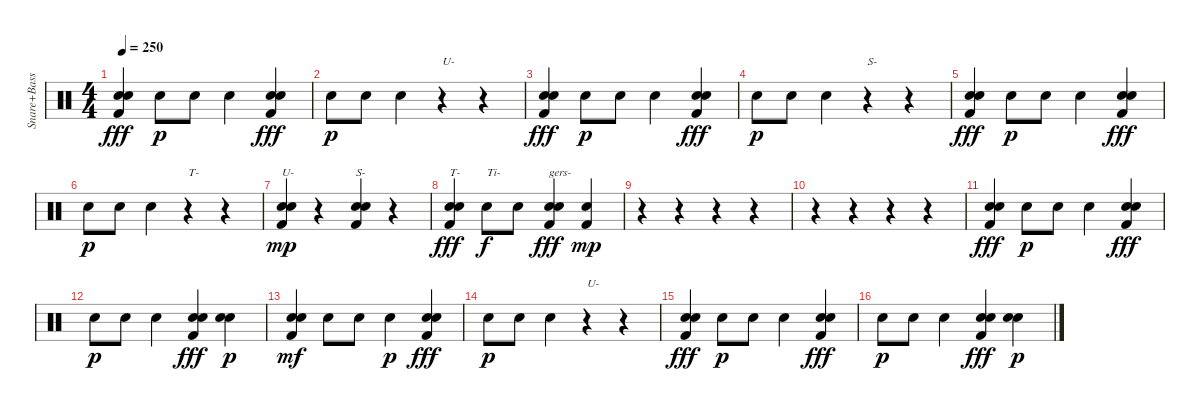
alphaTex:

\track ("Snare+Bass" "Snare+Bass") {instrument percussion}
\staff {score}
\articulation defaults
\ts (4 4)
\tempo 250
\clef neutral
\ks c
("Snare (hit) 2" "Snare (hit) 2" "Kick (hit) 2").4{dy fff} "Snare (hit) 2".8{dy p} "Snare (hit) 2".8 "Snare (hit) 2".4 ("Snare (hit) 2" "Snare (hit) 2" "Kick (hit) 2").4{dy fff} |
"Snare (hit) 2".8{dy p} "Snare (hit) 2".8 "Snare (hit) 2".4 r.4{txt "U-"} r.4 |
("Snare (hit) 2" "Snare (hit) 2" "Kick (hit) 2").4{dy fff} "Snare (hit) 2".8{dy p} "Snare (hit) 2".8 "Snare (hit) 2".4 ("Snare (hit) 2" "Snare (hit) 2" "Kick (hit) 2").4{dy fff} |
"Snare (hit) 2".8{dy p} "Snare (hit) 2".8 "Snare (hit) 2".4 r.4{txt "S-"} r.4 |
("Snare (hit) 2" "Snare (hit) 2" "Kick (hit) 2").4{dy fff} "Snare (hit) 2".8{dy p} "Snare (hit) 2".8 "Snare (hit) 2".4 ("Snare (hit) 2" "Snare (hit) 2" "Kick (hit) 2").4{dy fff} |
"Snare (hit) 2".8{dy p} "Snare (hit) 2".8 "Snare (hit) 2".4 r.4{txt "T-"} r.4 |
("Snare (hit) 2" "Snare (hit) 2" "Kick (hit) 2").4{txt "U-" dy mp} r.4 ("Snare (hit) 2" "Snare (hit) 2" "Kick (hit) 2").4{txt "S-"} r.4 |
("Snare (hit) 2" "Snare (hit) 2" "Kick (hit) 2").4{txt "T-" dy fff} "Snare (hit) 2".8{txt "Ti-" dy f} "Snare (hit) 2".8 ("Snare (hit) 2" "Snare (hit) 2" "Kick (hit) 2").4{txt "gers-" dy fff} ("Snare (hit) 2" "Kick (hit) 2").4{dy mp} |
r.4 r.4 r.4 r.4 |
r.4 r.4 r.4 r.4 |
("Snare (hit) 2" "Snare (hit) 2" "Kick (hit) 2").4{dy fff} "Snare (hit) 2".8{dy p} "Snare (hit) 2".8 "Snare (hit) 2".4 ("Snare (hit) 2" "Snare (hit) 2" "Kick (hit) 2").4{dy fff} |
"Snare (hit) 2".8{dy p} "Snare (hit) 2".8 "Snare (hit) 2".4 ("Snare (hit) 2" "Snare (hit) 2" "Kick (hit) 2").4{dy fff} ("Snare (hit) 2" "Snare (hit) 2").4{dy p} |
("Snare (hit) 2" "Snare (hit) 2" "Kick (hit) 2").4{dy mf} "Snare (hit) 2".8 "Snare (hit) 2".8 "Snare (hit) 2".4{dy p} ("Snare (hit) 2" "Snare (hit) 2" "Kick (hit) 2").4{dy fff} |
"Snare (hit) 2".8{dy p} "Snare (hit) 2".8 "Snare (hit) 2".4 r.4{txt "U-"} r.4 |
("Snare (hit) 2" "Snare (hit) 2" "Kick (hit) 2").4{dy fff} "Snare (hit) 2".8{dy p} "Snare (hit) 2".8 "Snare (hit) 2".4 ("Snare (hit) 2" "Snare (hit) 2" "Kick (hit) 2").4{dy fff} |
"Snare (hit) 2".8{dy p} "Snare (hit) 2".8 "Snare (hit) 2".4 ("Snare (hit) 2" "Snare (hit) 2" "Kick (hit) 2").4{dy fff} ("Snare (hit) 2" "Snare (hit) 2").4{dy p}
